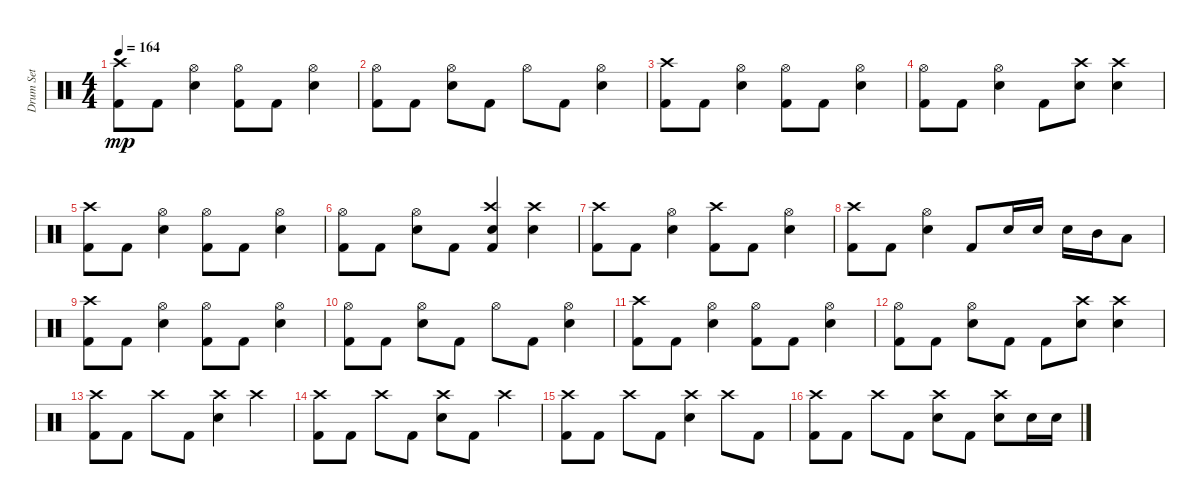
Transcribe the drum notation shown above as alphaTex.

\track ("Drum Set" "Drum Set") {instrument percussion}
\staff {score}
\articulation defaults
\ts (4 4)
\tempo 164
\clef neutral
\ks c
("Kick (hit) 2" "Crash high (hit)").8{dy mp} "Kick (hit) 2".8 ("Snare (hit) 2" "Hi-Hat (open)").4 ("Kick (hit) 2" "Hi-Hat (open)").8 "Kick (hit) 2".8 ("Snare (hit) 2" "Hi-Hat (open)").4 |
("Kick (hit) 2" "Hi-Hat (open)").8 "Kick (hit) 2".8 ("Snare (hit) 2" "Hi-Hat (open)").8 "Kick (hit) 2".8 "Hi-Hat (open)".8 "Kick (hit) 2".8 ("Snare (hit) 2" "Hi-Hat (open)").4 |
("Kick (hit) 2" "Crash high (hit)").8 "Kick (hit) 2".8 ("Snare (hit) 2" "Hi-Hat (open)").4 ("Kick (hit) 2" "Hi-Hat (open)").8 "Kick (hit) 2".8 ("Snare (hit) 2" "Hi-Hat (open)").4 |
("Kick (hit) 2" "Hi-Hat (open)").8 "Kick (hit) 2".8 ("Snare (hit) 2" "Hi-Hat (open)").4 "Kick (hit) 2".8 ("Snare (hit) 2" "Crash high (hit)").8 ("Snare (hit) 2" "Crash high (hit)").4 |
("Kick (hit) 2" "Crash high (hit)").8 "Kick (hit) 2".8 ("Snare (hit) 2" "Hi-Hat (open)").4 ("Kick (hit) 2" "Hi-Hat (open)").8 "Kick (hit) 2".8 ("Snare (hit) 2" "Hi-Hat (open)").4 |
("Kick (hit) 2" "Hi-Hat (open)").8 "Kick (hit) 2".8 ("Snare (hit) 2" "Hi-Hat (open)").8 "Kick (hit) 2".8 ("Kick (hit) 2" "Snare (hit) 2" "Crash high (hit)").4 ("Snare (hit) 2" "Crash high (hit)").4 |
("Kick (hit) 2" "Crash high (hit)").8 "Kick (hit) 2".8 ("Snare (hit) 2" "Hi-Hat (open)").4 ("Kick (hit) 2" "Crash high (hit)").8 "Kick (hit) 2".8 ("Snare (hit) 2" "Hi-Hat (open)").4 |
("Kick (hit) 2" "Crash high (hit)").8 "Kick (hit) 2".8 ("Snare (hit) 2" "Hi-Hat (open)").4 "Kick (hit) 2".8 "Snare (hit) 2".16 "Snare (hit) 2".16 "Snare (hit) 2".16 "Mid Tom (hit)".16 "Low Tom (hit)".8 |
("Kick (hit) 2" "Crash high (hit)").8 "Kick (hit) 2".8 ("Snare (hit) 2" "Hi-Hat (open)").4 ("Kick (hit) 2" "Hi-Hat (open)").8 "Kick (hit) 2".8 ("Snare (hit) 2" "Hi-Hat (open)").4 |
("Kick (hit) 2" "Hi-Hat (open)").8 "Kick (hit) 2".8 ("Snare (hit) 2" "Hi-Hat (open)").8 "Kick (hit) 2".8 "Hi-Hat (open)".8 "Kick (hit) 2".8 ("Snare (hit) 2" "Hi-Hat (open)").4 |
("Kick (hit) 2" "Crash high (hit)").8 "Kick (hit) 2".8 ("Snare (hit) 2" "Hi-Hat (open)").4 ("Kick (hit) 2" "Hi-Hat (open)").8 "Kick (hit) 2".8 ("Snare (hit) 2" "Hi-Hat (open)").4 |
("Kick (hit) 2" "Hi-Hat (open)").8 "Kick (hit) 2".8 ("Snare (hit) 2" "Hi-Hat (open)").8 "Kick (hit) 2".8 "Kick (hit) 2".8 ("Snare (hit) 2" "Crash high (hit)").8 ("Snare (hit) 2" "Crash high (hit)").4 |
("Kick (hit) 2" "Crash high (hit)").8 "Kick (hit) 2".8 "Crash high (hit)".8 "Kick (hit) 2".8 ("Snare (hit) 2" "Crash high (hit)").4 "Crash high (hit)".4 |
("Kick (hit) 2" "Crash high (hit)").8 "Kick (hit) 2".8 "Crash high (hit)".8 "Kick (hit) 2".8 ("Snare (hit) 2" "Crash high (hit)").8 "Kick (hit) 2".8 "Crash high (hit)".4 |
("Kick (hit) 2" "Crash high (hit)").8 "Kick (hit) 2".8 "Crash high (hit)".8 "Kick (hit) 2".8 ("Snare (hit) 2" "Crash high (hit)").4 "Crash high (hit)".8 "Kick (hit) 2".8 |
("Kick (hit) 2" "Crash high (hit)").8 "Kick (hit) 2".8 "Crash high (hit)".8 "Kick (hit) 2".8 ("Snare (hit) 2" "Crash high (hit)").8 "Kick (hit) 2".8 ("Snare (hit) 2" "Crash high (hit)").8 "Snare (hit) 2".16 "Snare (hit) 2".16
